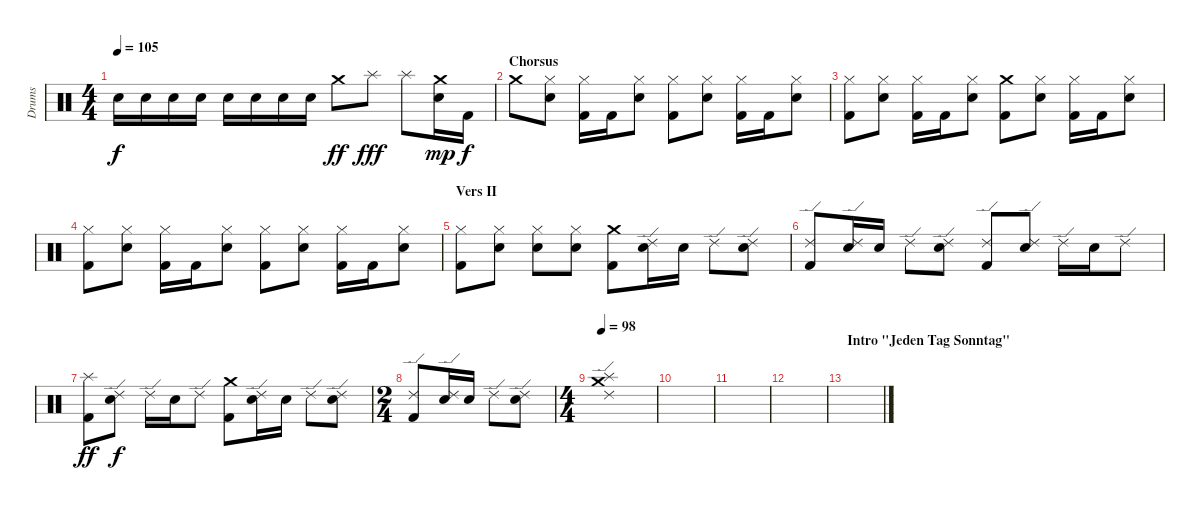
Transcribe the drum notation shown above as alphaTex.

\track ("Drums" "Drums") {instrument percussion}
\staff {score}
\articulation defaults
\ts (4 4)
\tempo 105
\clef neutral
\ks c "Electric Snare (hit)".16{dy f} "Electric Snare (hit)".16 "Electric Snare (hit)".16 "Electric Snare (hit)".16 "Electric Snare (hit)".16 "Electric Snare (hit)".16 "Electric Snare (hit)".16 "Electric Snare (hit)".16 "Crash medium (hit)".8{dy ff} "Splash (hit)".8{dy fff} "Splash (hit)".8
("Crash medium (hit)" "Electric Snare (hit)").16{dy mp} "Kick (hit) 2".16{dy f} |
\section ("" "Chorsus")
"Crash medium (hit)".8 ("Hi-Hat (closed)" "Electric Snare (hit)").8 ("Hi-Hat (closed)" "Kick (hit) 2").16 "Kick (hit) 2".16 ("Hi-Hat (closed)" "Electric Snare (hit)").8 ("Hi-Hat (closed)" "Kick (hit) 2").8 ("Hi-Hat (closed)" "Electric Snare (hit)").8 ("Hi-Hat (closed)" "Kick (hit) 2").16 "Kick (hit) 2".16 ("Hi-Hat (closed)" "Electric Snare (hit)").8 |
("Hi-Hat (closed)" "Kick (hit) 2").8 ("Hi-Hat (closed)" "Electric Snare (hit)").8 ("Hi-Hat (closed)" "Kick (hit) 2").16 "Kick (hit) 2".16 ("Hi-Hat (closed)" "Electric Snare (hit)").8 ("Crash medium (hit)" "Kick (hit) 2").8 ("Hi-Hat (closed)" "Electric Snare (hit)").8 ("Hi-Hat (closed)" "Kick (hit) 2").16 "Kick (hit) 2".16 ("Hi-Hat (closed)" "Electric Snare (hit)").8 |
("Hi-Hat (closed)" "Kick (hit) 2").8 ("Hi-Hat (closed)" "Electric Snare (hit)").8 ("Hi-Hat (closed)" "Kick (hit) 2").16 "Kick (hit) 2".16 ("Hi-Hat (closed)" "Electric Snare (hit)").8 ("Hi-Hat (closed)" "Kick (hit) 2").8 ("Hi-Hat (closed)" "Electric Snare (hit)").8 ("Hi-Hat (closed)" "Kick (hit) 2").16 "Kick (hit) 2".16 ("Hi-Hat (closed)" "Electric Snare (hit)").8 |
\section ("" "Vers II")
("Hi-Hat (closed)" "Kick (hit) 2").8 ("Hi-Hat (closed)" "Electric Snare (hit)").8 ("Hi-Hat (closed)" "Electric Snare (hit)").8 ("Hi-Hat (closed)" "Electric Snare (hit)").8 ("Crash medium (hit)" "Kick (hit) 2").8 ("Ride (edge) 2" "Electric Snare (hit)").16 "Electric Snare (hit)".16 "Ride (edge) 2".8 ("Ride (edge) 2" "Electric Snare (hit)").8 |
("Ride (edge) 2" "Kick (hit) 2").8 ("Ride (edge) 2" "Electric Snare (hit)").16 "Electric Snare (hit)".16 "Ride (edge) 2".8 ("Ride (edge) 2" "Electric Snare (hit)").8 ("Ride (edge) 2" "Kick (hit) 2").8 ("Ride (edge) 2" "Electric Snare (hit)").8 "Ride (edge) 2".16 "Electric Snare (hit)".16 "Ride (edge) 2".8 |
("Splash (hit)" "Kick (hit) 2").8{dy ff} ("Ride (edge) 2" "Electric Snare (hit)").8{dy f} "Ride (edge) 2".16 "Electric Snare (hit)".16 "Ride (edge) 2".8 ("Crash medium (hit)" "Kick (hit) 2").8 ("Ride (edge) 2" "Electric Snare (hit)").16 "Electric Snare (hit)".16 "Ride (edge) 2".8 ("Ride (edge) 2" "Electric Snare (hit)").8 |
\ts (2 4)
("Ride (edge) 2" "Kick (hit) 2").8 ("Ride (edge) 2" "Electric Snare (hit)").16 "Electric Snare (hit)".16 "Ride (edge) 2".8 ("Ride (edge) 2" "Electric Snare (hit)").8 |
\ts (4 4)
\tempo 98
("Crash medium (hit)" "Ride (edge) 2" "Splash (hit)").1 |
|
|
|
\section ("" "Intro \"Jeden Tag Sonntag\"")
